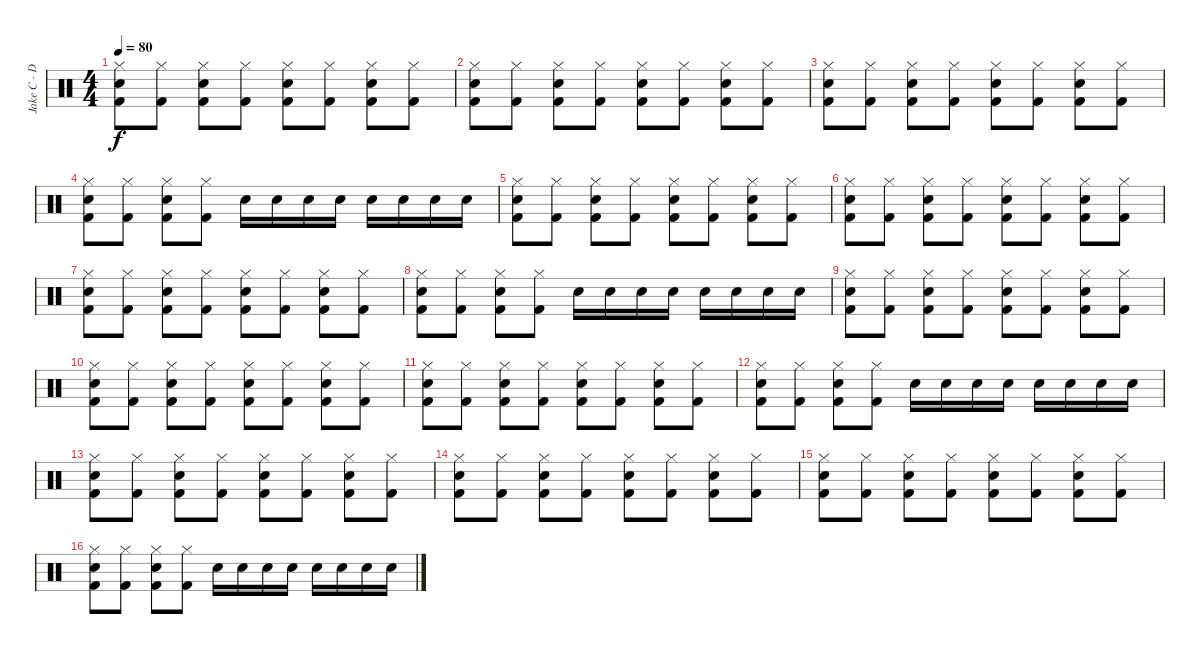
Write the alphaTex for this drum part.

\track ("Jake C - Drums" "Jake C - D") {instrument percussion}
\staff {score}
\articulation defaults
\ts (4 4)
\tempo 80
\clef neutral
\ks c
("Hi-Hat (closed)" "Electric Snare (hit)" "Kick (hit) 2").8{dy f} ("Hi-Hat (closed)" "Kick (hit) 2").8 ("Hi-Hat (closed)" "Electric Snare (hit)" "Kick (hit) 2").8 ("Hi-Hat (closed)" "Kick (hit) 2").8 ("Hi-Hat (closed)" "Electric Snare (hit)" "Kick (hit) 2").8 ("Hi-Hat (closed)" "Kick (hit) 2").8 ("Hi-Hat (closed)" "Electric Snare (hit)" "Kick (hit) 2").8 ("Hi-Hat (closed)" "Kick (hit) 2").8 |
("Hi-Hat (closed)" "Electric Snare (hit)" "Kick (hit) 2").8 ("Hi-Hat (closed)" "Kick (hit) 2").8 ("Hi-Hat (closed)" "Electric Snare (hit)" "Kick (hit) 2").8 ("Hi-Hat (closed)" "Kick (hit) 2").8 ("Hi-Hat (closed)" "Electric Snare (hit)" "Kick (hit) 2").8 ("Hi-Hat (closed)" "Kick (hit) 2").8 ("Hi-Hat (closed)" "Electric Snare (hit)" "Kick (hit) 2").8 ("Hi-Hat (closed)" "Kick (hit) 2").8 |
("Hi-Hat (closed)" "Electric Snare (hit)" "Kick (hit) 2").8 ("Hi-Hat (closed)" "Kick (hit) 2").8 ("Hi-Hat (closed)" "Electric Snare (hit)" "Kick (hit) 2").8 ("Hi-Hat (closed)" "Kick (hit) 2").8 ("Hi-Hat (closed)" "Electric Snare (hit)" "Kick (hit) 2").8 ("Hi-Hat (closed)" "Kick (hit) 2").8 ("Hi-Hat (closed)" "Electric Snare (hit)" "Kick (hit) 2").8 ("Hi-Hat (closed)" "Kick (hit) 2").8 |
("Hi-Hat (closed)" "Electric Snare (hit)" "Kick (hit) 2").8 ("Hi-Hat (closed)" "Kick (hit) 2").8 ("Hi-Hat (closed)" "Electric Snare (hit)" "Kick (hit) 2").8 ("Hi-Hat (closed)" "Kick (hit) 2").8 "Electric Snare (hit)".16 "Electric Snare (hit)".16 "Electric Snare (hit)".16 "Electric Snare (hit)".16 "Electric Snare (hit)".16 "Electric Snare (hit)".16 "Electric Snare (hit)".16 "Electric Snare (hit)".16 |
("Hi-Hat (closed)" "Electric Snare (hit)" "Kick (hit) 2").8 ("Hi-Hat (closed)" "Kick (hit) 2").8 ("Hi-Hat (closed)" "Electric Snare (hit)" "Kick (hit) 2").8 ("Hi-Hat (closed)" "Kick (hit) 2").8 ("Hi-Hat (closed)" "Electric Snare (hit)" "Kick (hit) 2").8 ("Hi-Hat (closed)" "Kick (hit) 2").8 ("Hi-Hat (closed)" "Electric Snare (hit)" "Kick (hit) 2").8 ("Hi-Hat (closed)" "Kick (hit) 2").8 |
("Hi-Hat (closed)" "Electric Snare (hit)" "Kick (hit) 2").8 ("Hi-Hat (closed)" "Kick (hit) 2").8 ("Hi-Hat (closed)" "Electric Snare (hit)" "Kick (hit) 2").8 ("Hi-Hat (closed)" "Kick (hit) 2").8 ("Hi-Hat (closed)" "Electric Snare (hit)" "Kick (hit) 2").8 ("Hi-Hat (closed)" "Kick (hit) 2").8 ("Hi-Hat (closed)" "Electric Snare (hit)" "Kick (hit) 2").8 ("Hi-Hat (closed)" "Kick (hit) 2").8 |
("Hi-Hat (closed)" "Electric Snare (hit)" "Kick (hit) 2").8 ("Hi-Hat (closed)" "Kick (hit) 2").8 ("Hi-Hat (closed)" "Electric Snare (hit)" "Kick (hit) 2").8 ("Hi-Hat (closed)" "Kick (hit) 2").8 ("Hi-Hat (closed)" "Electric Snare (hit)" "Kick (hit) 2").8 ("Hi-Hat (closed)" "Kick (hit) 2").8 ("Hi-Hat (closed)" "Electric Snare (hit)" "Kick (hit) 2").8 ("Hi-Hat (closed)" "Kick (hit) 2").8 |
("Hi-Hat (closed)" "Electric Snare (hit)" "Kick (hit) 2").8 ("Hi-Hat (closed)" "Kick (hit) 2").8 ("Hi-Hat (closed)" "Electric Snare (hit)" "Kick (hit) 2").8 ("Hi-Hat (closed)" "Kick (hit) 2").8 "Electric Snare (hit)".16 "Electric Snare (hit)".16 "Electric Snare (hit)".16 "Electric Snare (hit)".16 "Electric Snare (hit)".16 "Electric Snare (hit)".16 "Electric Snare (hit)".16 "Electric Snare (hit)".16 |
("Hi-Hat (closed)" "Electric Snare (hit)" "Kick (hit) 2").8 ("Hi-Hat (closed)" "Kick (hit) 2").8 ("Hi-Hat (closed)" "Electric Snare (hit)" "Kick (hit) 2").8 ("Hi-Hat (closed)" "Kick (hit) 2").8 ("Hi-Hat (closed)" "Electric Snare (hit)" "Kick (hit) 2").8 ("Hi-Hat (closed)" "Kick (hit) 2").8 ("Hi-Hat (closed)" "Electric Snare (hit)" "Kick (hit) 2").8 ("Hi-Hat (closed)" "Kick (hit) 2").8 |
("Hi-Hat (closed)" "Electric Snare (hit)" "Kick (hit) 2").8 ("Hi-Hat (closed)" "Kick (hit) 2").8 ("Hi-Hat (closed)" "Electric Snare (hit)" "Kick (hit) 2").8 ("Hi-Hat (closed)" "Kick (hit) 2").8 ("Hi-Hat (closed)" "Electric Snare (hit)" "Kick (hit) 2").8 ("Hi-Hat (closed)" "Kick (hit) 2").8 ("Hi-Hat (closed)" "Electric Snare (hit)" "Kick (hit) 2").8 ("Hi-Hat (closed)" "Kick (hit) 2").8 |
("Hi-Hat (closed)" "Electric Snare (hit)" "Kick (hit) 2").8 ("Hi-Hat (closed)" "Kick (hit) 2").8 ("Hi-Hat (closed)" "Electric Snare (hit)" "Kick (hit) 2").8 ("Hi-Hat (closed)" "Kick (hit) 2").8 ("Hi-Hat (closed)" "Electric Snare (hit)" "Kick (hit) 2").8 ("Hi-Hat (closed)" "Kick (hit) 2").8 ("Hi-Hat (closed)" "Electric Snare (hit)" "Kick (hit) 2").8 ("Hi-Hat (closed)" "Kick (hit) 2").8 |
("Hi-Hat (closed)" "Electric Snare (hit)" "Kick (hit) 2").8 ("Hi-Hat (closed)" "Kick (hit) 2").8 ("Hi-Hat (closed)" "Electric Snare (hit)" "Kick (hit) 2").8 ("Hi-Hat (closed)" "Kick (hit) 2").8 "Electric Snare (hit)".16 "Electric Snare (hit)".16 "Electric Snare (hit)".16 "Electric Snare (hit)".16 "Electric Snare (hit)".16 "Electric Snare (hit)".16 "Electric Snare (hit)".16 "Electric Snare (hit)".16 |
("Hi-Hat (closed)" "Electric Snare (hit)" "Kick (hit) 2").8 ("Hi-Hat (closed)" "Kick (hit) 2").8 ("Hi-Hat (closed)" "Electric Snare (hit)" "Kick (hit) 2").8 ("Hi-Hat (closed)" "Kick (hit) 2").8 ("Hi-Hat (closed)" "Electric Snare (hit)" "Kick (hit) 2").8 ("Hi-Hat (closed)" "Kick (hit) 2").8 ("Hi-Hat (closed)" "Electric Snare (hit)" "Kick (hit) 2").8 ("Hi-Hat (closed)" "Kick (hit) 2").8 |
("Hi-Hat (closed)" "Electric Snare (hit)" "Kick (hit) 2").8 ("Hi-Hat (closed)" "Kick (hit) 2").8 ("Hi-Hat (closed)" "Electric Snare (hit)" "Kick (hit) 2").8 ("Hi-Hat (closed)" "Kick (hit) 2").8 ("Hi-Hat (closed)" "Electric Snare (hit)" "Kick (hit) 2").8 ("Hi-Hat (closed)" "Kick (hit) 2").8 ("Hi-Hat (closed)" "Electric Snare (hit)" "Kick (hit) 2").8 ("Hi-Hat (closed)" "Kick (hit) 2").8 |
("Hi-Hat (closed)" "Electric Snare (hit)" "Kick (hit) 2").8 ("Hi-Hat (closed)" "Kick (hit) 2").8 ("Hi-Hat (closed)" "Electric Snare (hit)" "Kick (hit) 2").8 ("Hi-Hat (closed)" "Kick (hit) 2").8 ("Hi-Hat (closed)" "Electric Snare (hit)" "Kick (hit) 2").8 ("Hi-Hat (closed)" "Kick (hit) 2").8 ("Hi-Hat (closed)" "Electric Snare (hit)" "Kick (hit) 2").8 ("Hi-Hat (closed)" "Kick (hit) 2").8 |
("Hi-Hat (closed)" "Electric Snare (hit)" "Kick (hit) 2").8 ("Hi-Hat (closed)" "Kick (hit) 2").8 ("Hi-Hat (closed)" "Electric Snare (hit)" "Kick (hit) 2").8 ("Hi-Hat (closed)" "Kick (hit) 2").8 "Electric Snare (hit)".16 "Electric Snare (hit)".16 "Electric Snare (hit)".16 "Electric Snare (hit)".16 "Electric Snare (hit)".16 "Electric Snare (hit)".16 "Electric Snare (hit)".16 "Electric Snare (hit)".16
